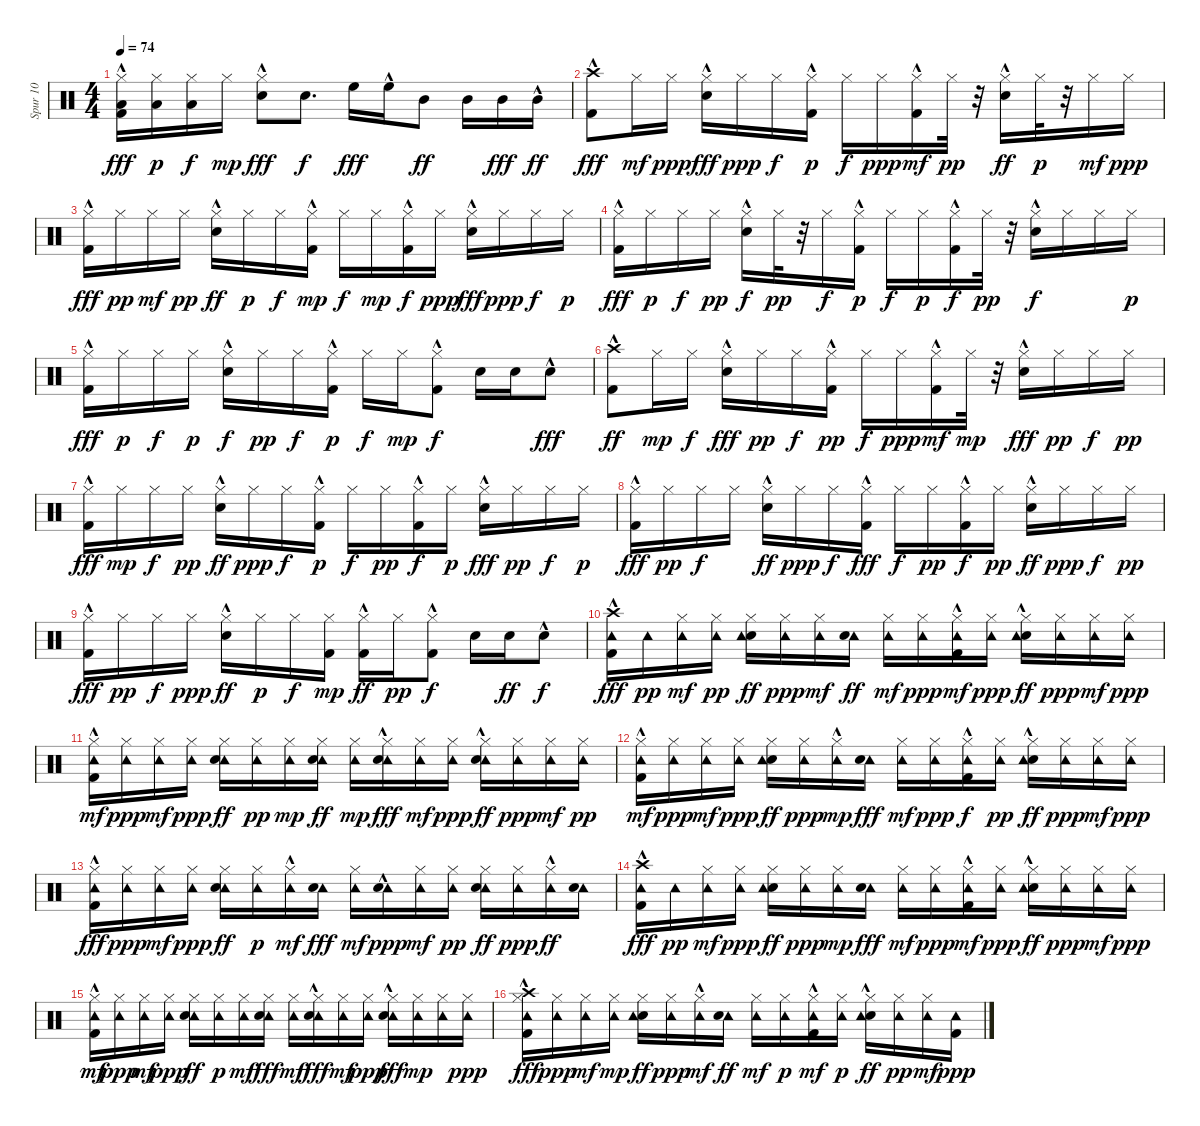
\track ("Spur 10" "Spur 10") {instrument percussion}
\staff {score}
\articulation defaults
\ts (4 4)
\tempo 74
\clef neutral
\ks c
("Hi-Hat (closed)" "Low Floor Tom (hit)" "Kick (hit) 2"{hac}).16{dy fff} ("Low Floor Tom (hit)" "Hi-Hat (closed)").16{dy p} ("Low Floor Tom (hit)" "Hi-Hat (closed)").16{dy f} "Hi-Hat (closed)".16{dy mp} ("Hi-Hat (closed)"{hac} "Snare (hit) 2").8{dy fff} "Snare (hit) 2".8{d dy f} "High Floor Tom (hit)".16{dy fff} "High Floor Tom (hit)"{hac}.16 "Mid Tom (hit)".8{dy ff} "Mid Tom (hit)".16 "Mid Tom (hit)".16{dy fff} "Mid Tom (hit)"{hac}.16{dy ff} |
("Kick (hit) 2"{hac} "Crash high (hit)").8{dy fff} "Hi-Hat (closed)".16{dy mf} "Hi-Hat (closed)".16{dy ppp} ("Hi-Hat (closed)" "Snare (hit) 2"{hac}).16{dy fff} "Hi-Hat (closed)".16{dy ppp} "Hi-Hat (closed)".16{dy f} ("Kick (hit) 2"{hac} "Hi-Hat (closed)").16{dy p} "Hi-Hat (closed)".16{dy f} "Hi-Hat (closed)".16{dy ppp} ("Hi-Hat (closed)" "Kick (hit) 2"{hac}).16{dy mf} "Hi-Hat (closed)".32{dy pp} r.32 ("Hi-Hat (closed)" "Snare (hit) 2"{hac}).16{dy ff} "Hi-Hat (closed)".32{dy p} r.32 "Hi-Hat (closed)".16{dy mf} "Hi-Hat (closed)".16{dy ppp} |
("Hi-Hat (closed)" "Kick (hit) 2"{hac}).16{dy fff} "Hi-Hat (closed)".16{dy pp} "Hi-Hat (closed)".16{dy mf} "Hi-Hat (closed)".16{dy pp} ("Hi-Hat (closed)" "Snare (hit) 2"{hac}).16{dy ff} "Hi-Hat (closed)".16{dy p} "Hi-Hat (closed)".16{dy f} ("Kick (hit) 2"{hac} "Hi-Hat (closed)").16{dy mp} "Hi-Hat (closed)".16{dy f} "Hi-Hat (closed)".16{dy mp} ("Hi-Hat (closed)" "Kick (hit) 2"{hac}).16{dy f} "Hi-Hat (closed)".16{dy ppp} ("Hi-Hat (closed)" "Snare (hit) 2"{hac}).16{dy fff} "Hi-Hat (closed)".16{dy ppp} "Hi-Hat (closed)".16{dy f} "Hi-Hat (closed)".16{dy p} |
("Kick (hit) 2"{hac} "Hi-Hat (closed)").16{dy fff} "Hi-Hat (closed)".16{dy p} "Hi-Hat (closed)".16{dy f} "Hi-Hat (closed)".16{dy pp} ("Hi-Hat (closed)" "Snare (hit) 2"{hac}).16{dy f} "Hi-Hat (closed)".32{dy pp} r.32 "Hi-Hat (closed)".16{dy f} ("Kick (hit) 2"{hac} "Hi-Hat (closed)").16{dy p} "Hi-Hat (closed)".16{dy f} "Hi-Hat (closed)".16{dy p} ("Hi-Hat (closed)" "Kick (hit) 2"{hac}).16{dy f} "Hi-Hat (closed)".32{dy pp} r.32 ("Hi-Hat (closed)" "Snare (hit) 2"{hac}).16{dy f} "Hi-Hat (closed)".16 "Hi-Hat (closed)".16 "Hi-Hat (closed)".16{dy p} |
("Kick (hit) 2"{hac} "Hi-Hat (closed)").16{dy fff} "Hi-Hat (closed)".16{dy p} "Hi-Hat (closed)".16{dy f} "Hi-Hat (closed)".16{dy p} ("Hi-Hat (closed)" "Snare (hit) 2"{hac}).16{dy f} "Hi-Hat (closed)".16{dy pp} "Hi-Hat (closed)".16{dy f} ("Kick (hit) 2"{hac} "Hi-Hat (closed)").16{dy p} "Hi-Hat (closed)".16{dy f} "Hi-Hat (closed)".16{dy mp} ("Hi-Hat (closed)"{hac} "Kick (hit) 2"{hac}).8{dy f} "Snare (hit) 2".16 "Snare (hit) 2".16 "Snare (hit) 2"{hac}.8{dy fff} |
("Kick (hit) 2"{hac} "Crash high (hit)").8{dy ff} "Hi-Hat (closed)".16{dy mp} "Hi-Hat (closed)".16{dy f} ("Hi-Hat (closed)" "Snare (hit) 2"{hac}).16{dy fff} "Hi-Hat (closed)".16{dy pp} "Hi-Hat (closed)".16{dy f} ("Kick (hit) 2"{hac} "Hi-Hat (closed)").16{dy pp} "Hi-Hat (closed)".16{dy f} "Hi-Hat (closed)".16{dy ppp} ("Hi-Hat (closed)" "Kick (hit) 2"{hac}).16{dy mf} "Hi-Hat (closed)".32{dy mp} r.32 ("Hi-Hat (closed)" "Snare (hit) 2"{hac}).16{dy fff} "Hi-Hat (closed)".16{dy pp} "Hi-Hat (closed)".16{dy f} "Hi-Hat (closed)".16{dy pp} |
("Kick (hit) 2"{hac} "Hi-Hat (closed)").16{dy fff} "Hi-Hat (closed)".16{dy mp} "Hi-Hat (closed)".16{dy f} "Hi-Hat (closed)".16{dy pp} ("Hi-Hat (closed)" "Snare (hit) 2"{hac}).16{dy ff} "Hi-Hat (closed)".16{dy ppp} "Hi-Hat (closed)".16{dy f} ("Kick (hit) 2"{hac} "Hi-Hat (closed)").16{dy p} "Hi-Hat (closed)".16{dy f} "Hi-Hat (closed)".16{dy pp} ("Kick (hit) 2"{hac} "Hi-Hat (closed)").16{dy f} "Hi-Hat (closed)".16{dy p} ("Hi-Hat (closed)" "Snare (hit) 2"{hac}).16{dy fff} "Hi-Hat (closed)".16{dy pp} "Hi-Hat (closed)".16{dy f} "Hi-Hat (closed)".16{dy p} |
("Kick (hit) 2"{hac} "Hi-Hat (closed)").16{dy fff} "Hi-Hat (closed)".16{dy pp} "Hi-Hat (closed)".16{dy f} "Hi-Hat (closed)".16 ("Hi-Hat (closed)" "Snare (hit) 2"{hac}).16{dy ff} "Hi-Hat (closed)".16{dy ppp} "Hi-Hat (closed)".16{dy f} ("Hi-Hat (closed)" "Kick (hit) 2"{hac}).16{dy fff} "Hi-Hat (closed)".16{dy f} "Hi-Hat (closed)".16{dy pp} ("Hi-Hat (closed)" "Kick (hit) 2"{hac}).16{dy f} "Hi-Hat (closed)".16{dy pp} ("Hi-Hat (closed)" "Snare (hit) 2"{hac}).16{dy ff} "Hi-Hat (closed)".16{dy ppp} "Hi-Hat (closed)".16{dy f} "Hi-Hat (closed)".16{dy pp} |
("Hi-Hat (closed)" "Kick (hit) 2"{hac}).16{dy fff} "Hi-Hat (closed)".16{dy pp} "Hi-Hat (closed)".16{dy f} "Hi-Hat (closed)".16{dy ppp} ("Hi-Hat (closed)" "Snare (hit) 2"{hac}).16{dy ff} "Hi-Hat (closed)".16{dy p} "Hi-Hat (closed)".16{dy f} ("Kick (hit) 2" "Hi-Hat (closed)").16{dy mp} ("Hi-Hat (closed)" "Kick (hit) 2"{hac}).16{dy ff} "Hi-Hat (closed)".16{dy pp} ("Hi-Hat (closed)"{hac} "Kick (hit) 2"{hac}).8{dy f} "Snare (hit) 2".16 "Snare (hit) 2".16{dy ff} "Snare (hit) 2"{hac}.8{dy f} |
("Tambourine (hit)" "Kick (hit) 2"{hac} "Crash high (hit)").16{dy fff} "Tambourine (hit)".16{dy pp} ("Hi-Hat (closed)" "Tambourine (hit)").16{dy mf} ("Hi-Hat (closed)" "Tambourine (hit)").16{dy pp} ("Hi-Hat (closed)" "Snare (hit) 2" "Tambourine (hit)").16{dy ff} ("Hi-Hat (closed)" "Tambourine (hit)").16{dy ppp} ("Hi-Hat (closed)" "Tambourine (hit)").16{dy mf} ("Tambourine (hit)" "Snare (hit) 2").16{dy ff} ("Hi-Hat (closed)" "Tambourine (hit)").16{dy mf} ("Hi-Hat (closed)" "Tambourine (hit)").16{dy ppp} ("Hi-Hat (closed)" "Kick (hit) 2"{hac} "Tambourine (hit)").16{dy mf} ("Hi-Hat (closed)" "Tambourine (hit)").16{dy ppp} ("Hi-Hat (closed)" "Snare (hit) 2"{hac} "Tambourine (hit)").16{dy ff} ("Hi-Hat (closed)" "Tambourine (hit)").16{dy ppp} ("Hi-Hat (closed)" "Tambourine (hit)").16{dy mf} ("Hi-Hat (closed)" "Tambourine (hit)").16{dy ppp} |
("Kick (hit) 2"{hac} "Hi-Hat (closed)" "Tambourine (hit)").16{dy mf} ("Hi-Hat (closed)" "Tambourine (hit)").16{dy ppp} ("Hi-Hat (closed)" "Tambourine (hit)").16{dy mf} ("Hi-Hat (closed)" "Tambourine (hit)").16{dy ppp} ("Tambourine (hit)" "Hi-Hat (closed)" "Snare (hit) 2").16{dy ff} ("Hi-Hat (closed)" "Tambourine (hit)").16{dy pp} ("Hi-Hat (closed)" "Tambourine (hit)").16{dy mp} ("Tambourine (hit)" "Hi-Hat (closed)" "Snare (hit) 2").16{dy ff} ("Hi-Hat (closed)" "Tambourine (hit)").16{dy mp} ("Tambourine (hit)" "Hi-Hat (closed)" "Snare (hit) 2"{hac}).16{dy fff} ("Hi-Hat (closed)" "Tambourine (hit)").16{dy mf} ("Hi-Hat (closed)" "Tambourine (hit)").16{dy ppp} ("Hi-Hat (closed)" "Tambourine (hit)" "Snare (hit) 2"{hac}).16{dy ff} ("Tambourine (hit)" "Hi-Hat (closed)").16{dy ppp} ("Hi-Hat (closed)" "Tambourine (hit)").16{dy mf} ("Tambourine (hit)" "Hi-Hat (closed)").16{dy pp} |
("Kick (hit) 2"{hac} "Hi-Hat (closed)" "Tambourine (hit)").16{dy mf} ("Hi-Hat (closed)" "Tambourine (hit)").16{dy ppp} ("Hi-Hat (closed)" "Tambourine (hit)").16{dy mf} ("Hi-Hat (closed)" "Tambourine (hit)").16{dy ppp} ("Hi-Hat (closed)" "Snare (hit) 2" "Tambourine (hit)").16{dy ff} ("Hi-Hat (closed)" "Tambourine (hit)").16{dy ppp} ("Hi-Hat (closed)"{hac} "Tambourine (hit)").16{dy mp} ("Tambourine (hit)" "Snare (hit) 2").16{dy fff} ("Hi-Hat (closed)" "Tambourine (hit)").16{dy mf} ("Hi-Hat (closed)" "Tambourine (hit)").16{dy ppp} ("Hi-Hat (closed)" "Kick (hit) 2"{hac} "Tambourine (hit)").16{dy f} ("Hi-Hat (closed)" "Tambourine (hit)").16{dy pp} ("Hi-Hat (closed)" "Snare (hit) 2"{hac} "Tambourine (hit)").16{dy ff} ("Hi-Hat (closed)" "Tambourine (hit)").16{dy ppp} ("Hi-Hat (closed)" "Tambourine (hit)").16{dy mf} ("Hi-Hat (closed)" "Tambourine (hit)").16{dy ppp} |
("Kick (hit) 2"{hac} "Hi-Hat (closed)" "Tambourine (hit)").16{dy fff} ("Hi-Hat (closed)" "Tambourine (hit)").16{dy ppp} ("Hi-Hat (closed)" "Tambourine (hit)").16{dy mf} ("Hi-Hat (closed)" "Tambourine (hit)").16{dy ppp} ("Tambourine (hit)" "Hi-Hat (closed)" "Snare (hit) 2").16{dy ff} ("Tambourine (hit)" "Hi-Hat (closed)").16{dy p} ("Hi-Hat (closed)"{hac} "Tambourine (hit)").16{dy mf} ("Tambourine (hit)" "Snare (hit) 2").16{dy fff} ("Tambourine (hit)" "Hi-Hat (closed)").16{dy mf} ("Tambourine (hit)" "Snare (hit) 2"{hac}).16{dy ppp} ("Hi-Hat (closed)" "Tambourine (hit)").16{dy mf} ("Hi-Hat (closed)" "Tambourine (hit)").16{dy pp} ("Hi-Hat (closed)" "Tambourine (hit)" "Snare (hit) 2").16{dy ff} ("Tambourine (hit)" "Hi-Hat (closed)").16{dy ppp} ("Tambourine (hit)" "Hi-Hat (closed)"{hac}).16{dy ff} ("Tambourine (hit)" "Snare (hit) 2").16 |
("Kick (hit) 2"{hac} "Tambourine (hit)" "Crash high (hit)").16{dy fff} "Tambourine (hit)".16{dy pp} ("Tambourine (hit)" "Hi-Hat (closed)").16{dy mf} ("Hi-Hat (closed)" "Tambourine (hit)").16{dy ppp} ("Hi-Hat (closed)" "Snare (hit) 2" "Tambourine (hit)").16{dy ff} ("Hi-Hat (closed)" "Tambourine (hit)").16{dy ppp} ("Hi-Hat (closed)" "Tambourine (hit)").16{dy mp} ("Tambourine (hit)" "Snare (hit) 2").16{dy fff} ("Hi-Hat (closed)" "Tambourine (hit)").16{dy mf} ("Hi-Hat (closed)" "Tambourine (hit)").16{dy ppp} ("Hi-Hat (closed)" "Kick (hit) 2"{hac} "Tambourine (hit)").16{dy mf} ("Hi-Hat (closed)" "Tambourine (hit)").16{dy ppp} ("Hi-Hat (closed)" "Snare (hit) 2"{hac} "Tambourine (hit)").16{dy ff} ("Hi-Hat (closed)" "Tambourine (hit)").16{dy ppp} ("Hi-Hat (closed)" "Tambourine (hit)").16{dy mf} ("Hi-Hat (closed)" "Tambourine (hit)").16{dy ppp} |
("Hi-Hat (closed)" "Kick (hit) 2"{hac} "Tambourine (hit)").16{dy mf} ("Hi-Hat (closed)" "Tambourine (hit)").16{dy ppp} ("Hi-Hat (closed)" "Tambourine (hit)").16{dy mf} ("Hi-Hat (closed)" "Tambourine (hit)").16{dy ppp} ("Hi-Hat (closed)" "Tambourine (hit)" "Snare (hit) 2").16{dy ff} ("Tambourine (hit)" "Hi-Hat (closed)").16{dy p} ("Hi-Hat (closed)" "Tambourine (hit)").16{dy mf} ("Tambourine (hit)" "Hi-Hat (closed)" "Snare (hit) 2").16{dy fff} ("Hi-Hat (closed)" "Tambourine (hit)").16{dy mf} ("Hi-Hat (closed)" "Tambourine (hit)" "Snare (hit) 2"{hac}).16{dy fff} ("Hi-Hat (closed)" "Tambourine (hit)").16{dy mf} ("Hi-Hat (closed)" "Tambourine (hit)").16{dy ppp} ("Hi-Hat (closed)" "Tambourine (hit)" "Snare (hit) 2"{hac}).16{dy fff} ("Tambourine (hit)" "Hi-Hat (closed)").16{dy mp} ("Hi-Hat (closed)" "Tambourine (hit)").16 ("Tambourine (hit)" "Hi-Hat (closed)").16{dy ppp} |
("Kick (hit) 2"{hac} "Hi-Hat (closed)" "Tambourine (hit)" "Crash high (hit)").16{dy fff} ("Hi-Hat (closed)" "Tambourine (hit)").16{dy ppp} ("Hi-Hat (closed)" "Tambourine (hit)").16{dy mf} ("Hi-Hat (closed)" "Tambourine (hit)").16{dy mp} ("Hi-Hat (closed)" "Snare (hit) 2" "Tambourine (hit)").16{dy ff} ("Hi-Hat (closed)" "Tambourine (hit)").16{dy ppp} ("Hi-Hat (closed)"{hac} "Tambourine (hit)").16{dy mf} ("Tambourine (hit)" "Snare (hit) 2").16{dy ff} ("Hi-Hat (closed)" "Tambourine (hit)").16{dy mf} ("Hi-Hat (closed)" "Tambourine (hit)").16{dy p} ("Hi-Hat (closed)" "Kick (hit) 2"{hac} "Tambourine (hit)").16{dy mf} ("Hi-Hat (closed)" "Tambourine (hit)").16{dy p} ("Hi-Hat (closed)" "Snare (hit) 2"{hac} "Tambourine (hit)").16{dy ff} ("Hi-Hat (closed)" "Tambourine (hit)").16{dy pp} ("Hi-Hat (closed)" "Tambourine (hit)").16{dy mf} ("Tambourine (hit)" "Kick (hit) 2").16{dy ppp}
